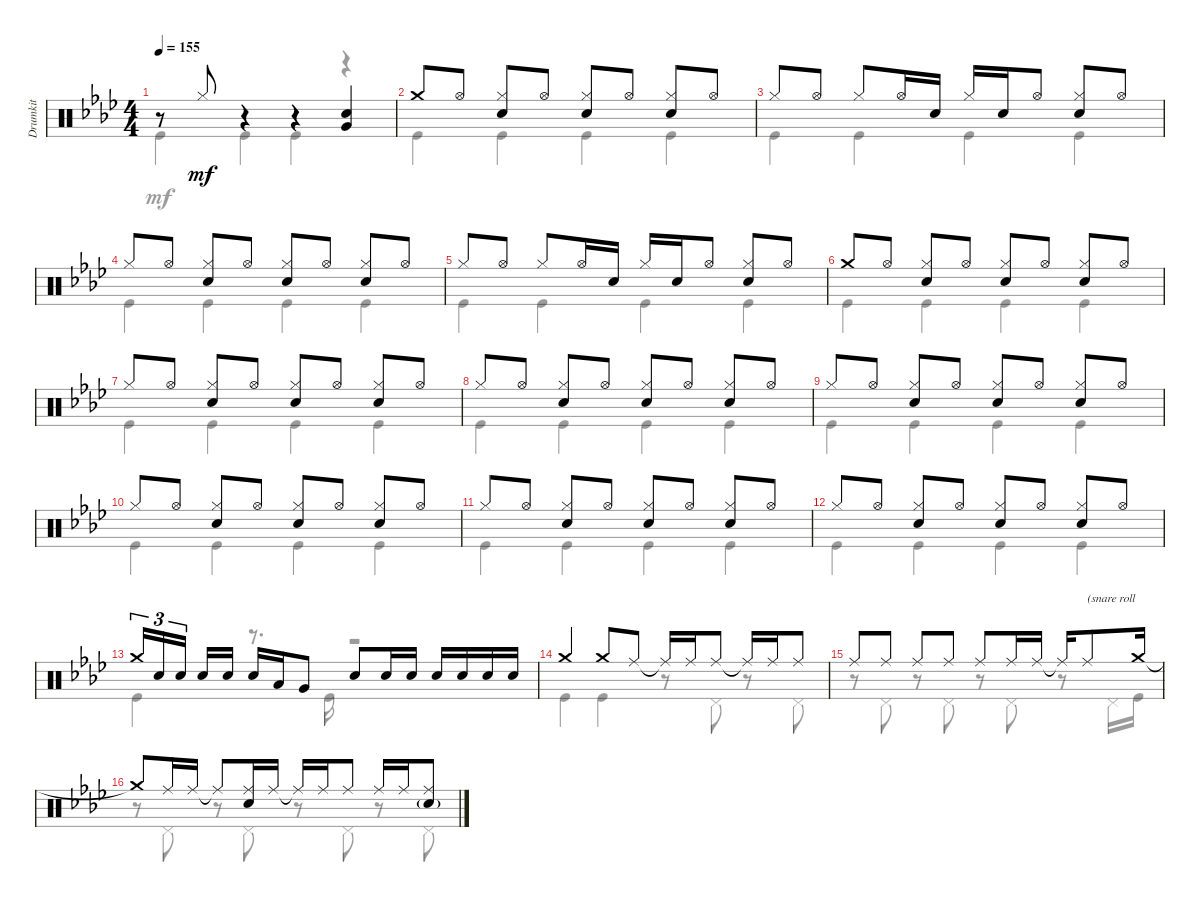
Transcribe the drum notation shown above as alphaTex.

\track ("Drumkit" "Drumkit") {instrument percussion}
\staff {score}
\articulation defaults
\voice
\ts (4 4)
\tempo 155
\clef neutral
\ks ab
r.8{dy mf} "Hi-Hat (closed)".8 r.4 r.4 ("Snare (hit) 2" "Very Low Tom (hit)").4 |
"Crash medium (hit)".8 "Hi-Hat (open)".8 ("Snare (hit) 2" "Hi-Hat (closed)").8 "Hi-Hat (open)".8 ("Snare (hit) 2" "Hi-Hat (closed)").8 "Hi-Hat (open)".8 ("Snare (hit) 2" "Hi-Hat (closed)").8 "Hi-Hat (open)".8 |
"Hi-Hat (closed)".8 "Hi-Hat (open)".8 "Hi-Hat (closed)".8 "Hi-Hat (open)".16 "Snare (hit) 2".16 "Hi-Hat (closed)".16 "Snare (hit) 2".16 "Hi-Hat (open)".8 ("Hi-Hat (closed)" "Snare (hit) 2").8 "Hi-Hat (open)".8 |
"Hi-Hat (closed)".8 "Hi-Hat (open)".8 ("Snare (hit) 2" "Hi-Hat (closed)").8 "Hi-Hat (open)".8 ("Snare (hit) 2" "Hi-Hat (closed)").8 "Hi-Hat (open)".8 ("Snare (hit) 2" "Hi-Hat (closed)").8 "Hi-Hat (open)".8 |
"Hi-Hat (closed)".8 "Hi-Hat (open)".8 "Hi-Hat (closed)".8 "Hi-Hat (open)".16 "Snare (hit) 2".16 "Hi-Hat (closed)".16 "Snare (hit) 2".16 "Hi-Hat (open)".8 ("Hi-Hat (closed)" "Snare (hit) 2").8 "Hi-Hat (open)".8 |
"Crash medium (hit)".8 "Hi-Hat (open)".8 ("Snare (hit) 2" "Hi-Hat (closed)").8 "Hi-Hat (open)".8 ("Snare (hit) 2" "Hi-Hat (closed)").8 "Hi-Hat (open)".8 ("Snare (hit) 2" "Hi-Hat (closed)").8 "Hi-Hat (open)".8 |
"Hi-Hat (closed)".8 "Hi-Hat (open)".8 ("Snare (hit) 2" "Hi-Hat (closed)").8 "Hi-Hat (open)".8 ("Snare (hit) 2" "Hi-Hat (closed)").8 "Hi-Hat (open)".8 ("Snare (hit) 2" "Hi-Hat (closed)").8 "Hi-Hat (open)".8 |
"Hi-Hat (closed)".8 "Hi-Hat (open)".8 ("Snare (hit) 2" "Hi-Hat (closed)").8 "Hi-Hat (open)".8 ("Snare (hit) 2" "Hi-Hat (closed)").8 "Hi-Hat (open)".8 ("Snare (hit) 2" "Hi-Hat (closed)").8 "Hi-Hat (open)".8 |
"Hi-Hat (closed)".8 "Hi-Hat (open)".8 ("Snare (hit) 2" "Hi-Hat (closed)").8 "Hi-Hat (open)".8 ("Snare (hit) 2" "Hi-Hat (closed)").8 "Hi-Hat (open)".8 ("Snare (hit) 2" "Hi-Hat (closed)").8 "Hi-Hat (open)".8 |
"Hi-Hat (closed)".8 "Hi-Hat (open)".8 ("Snare (hit) 2" "Hi-Hat (closed)").8 "Hi-Hat (open)".8 ("Snare (hit) 2" "Hi-Hat (closed)").8 "Hi-Hat (open)".8 ("Snare (hit) 2" "Hi-Hat (closed)").8 "Hi-Hat (open)".8 |
"Hi-Hat (closed)".8 "Hi-Hat (open)".8 ("Snare (hit) 2" "Hi-Hat (closed)").8 "Hi-Hat (open)".8 ("Snare (hit) 2" "Hi-Hat (closed)").8 "Hi-Hat (open)".8 ("Snare (hit) 2" "Hi-Hat (closed)").8 "Hi-Hat (open)".8 |
"Hi-Hat (closed)".8 "Hi-Hat (open)".8 ("Snare (hit) 2" "Hi-Hat (closed)").8 "Hi-Hat (open)".8 ("Snare (hit) 2" "Hi-Hat (closed)").8 "Hi-Hat (open)".8 ("Snare (hit) 2" "Hi-Hat (closed)").8 "Hi-Hat (open)".8 |
"Crash medium (hit)".16{tu (3 2)} "Snare (hit) 2".16{tu (3 2)} "Snare (hit) 2".16{tu (3 2) beam splitsecondary} "Snare (hit) 2".16 "Snare (hit) 2".16 "Snare (hit) 2".16 "Low Tom (hit)".16 "Very Low Tom (hit)".8 "Snare (hit) 2".8 "Snare (hit) 2".16 "Snare (hit) 2".16 "Snare (hit) 2".16 "Snare (hit) 2".16 "Snare (hit) 2".16 "Snare (hit) 2".16 |
"Crash medium (hit)".4 "Crash medium (hit)".8 "Ride (middle)".8 "Ride (middle)"{t}.16 "Ride (middle)".16 "Ride (middle)".8 "Ride (middle)"{t}.16 "Ride (middle)".16 "Ride (middle)".8 |
"Ride (middle)".8 "Ride (middle)".8 "Ride (middle)".8 "Ride (middle)".8 "Ride (middle)".8 "Ride (middle)".16 "Ride (middle)".16 "Ride (middle)"{t}.16 "Ride (middle)".8{txt "(snare roll"} "Crash medium (hit)".16 |
"Crash medium (hit)"{t}.8 "Ride (middle)".16 "Ride (middle)".16 "Ride (middle)"{t}.8 ("Snare (hit) 2" "Ride (middle)").16 "Ride (middle)".16 "Ride (middle)"{t}.16 "Ride (middle)".16 "Ride (middle)".8 "Ride (middle)".16 "Ride (middle)".16 ("Snare (hit) 2"{g} "Ride (middle)").8
\voice
\clef neutral
\ottava regular
\simile none
\ks ab "Kick (hit)".4{dy mf} "Kick (hit)".4 "Kick (hit)".4
r.4 |
"Kick (hit)".4 "Kick (hit)".4 "Kick (hit)".4 "Kick (hit)".4 |
"Kick (hit)".4 "Kick (hit)".4 "Kick (hit)".4 "Kick (hit)".4 |
"Kick (hit)".4 "Kick (hit)".4 "Kick (hit)".4 "Kick (hit)".4 |
"Kick (hit)".4 "Kick (hit)".4 "Kick (hit)".4 "Kick (hit)".4 |
"Kick (hit)".4 "Kick (hit)".4 "Kick (hit)".4 "Kick (hit)".4 |
"Kick (hit)".4 "Kick (hit)".4 "Kick (hit)".4 "Kick (hit)".4 |
"Kick (hit)".4 "Kick (hit)".4 "Kick (hit)".4 "Kick (hit)".4 |
"Kick (hit)".4 "Kick (hit)".4 "Kick (hit)".4 "Kick (hit)".4 |
"Kick (hit)".4 "Kick (hit)".4 "Kick (hit)".4 "Kick (hit)".4 |
"Kick (hit)".4 "Kick (hit)".4 "Kick (hit)".4 "Kick (hit)".4 |
"Kick (hit)".4 "Kick (hit)".4 "Kick (hit)".4 "Kick (hit)".4 |
"Kick (hit)".4 r.8{d} "Kick (hit)".16 r.2 |
"Kick (hit)".4 "Kick (hit)".4 r.8 "Pedal Hi-Hat (hit)".8 r.8 "Pedal Hi-Hat (hit)".8 |
r.8 "Pedal Hi-Hat (hit)".8 r.8 "Pedal Hi-Hat (hit)".8 r.8 "Pedal Hi-Hat (hit)".8 r.8 "Pedal Hi-Hat (hit)".16 "Kick (hit)".16 |
r.8 "Pedal Hi-Hat (hit)".8 r.8 "Pedal Hi-Hat (hit)".8 r.8 "Pedal Hi-Hat (hit)".8 r.8 "Pedal Hi-Hat (hit)".8
